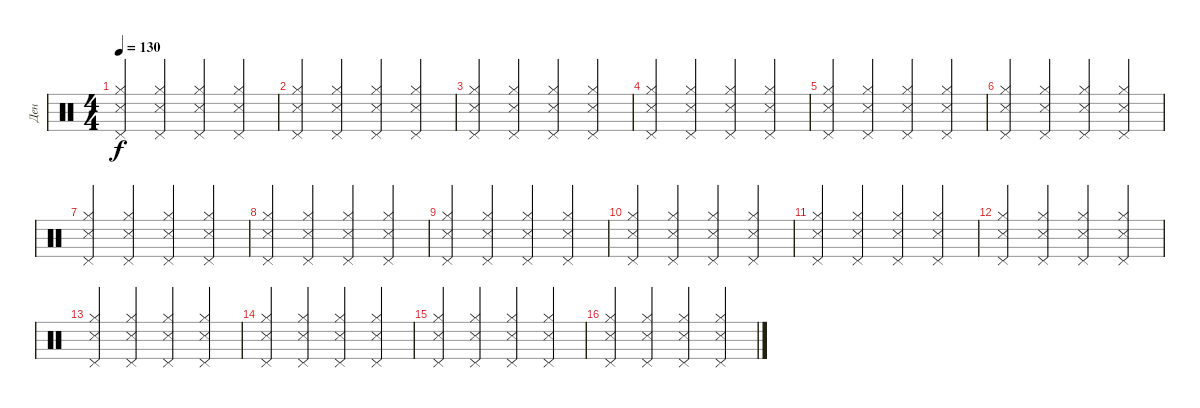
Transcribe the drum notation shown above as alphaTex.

\track ("Ден" "Ден") {instrument percussion}
\staff {score}
\articulation defaults
\ts (4 4)
\tempo 130
\clef neutral
\ks c
("Pedal Hi-Hat (hit)" "Hi-Hat (closed)" "Snare (side stick) 3").4{dy f} ("Pedal Hi-Hat (hit)" "Hi-Hat (closed)" "Snare (side stick) 3").4 ("Pedal Hi-Hat (hit)" "Hi-Hat (closed)" "Snare (side stick) 3").4 ("Pedal Hi-Hat (hit)" "Hi-Hat (closed)" "Snare (side stick) 3").4 |
("Pedal Hi-Hat (hit)" "Hi-Hat (closed)" "Snare (side stick) 3").4 ("Pedal Hi-Hat (hit)" "Hi-Hat (closed)" "Snare (side stick) 3").4 ("Pedal Hi-Hat (hit)" "Hi-Hat (closed)" "Snare (side stick) 3").4 ("Pedal Hi-Hat (hit)" "Hi-Hat (closed)" "Snare (side stick) 3").4 |
("Pedal Hi-Hat (hit)" "Hi-Hat (closed)" "Snare (side stick) 3").4 ("Pedal Hi-Hat (hit)" "Hi-Hat (closed)" "Snare (side stick) 3").4 ("Pedal Hi-Hat (hit)" "Hi-Hat (closed)" "Snare (side stick) 3").4 ("Pedal Hi-Hat (hit)" "Hi-Hat (closed)" "Snare (side stick) 3").4 |
("Pedal Hi-Hat (hit)" "Hi-Hat (closed)" "Snare (side stick) 3").4 ("Pedal Hi-Hat (hit)" "Hi-Hat (closed)" "Snare (side stick) 3").4 ("Pedal Hi-Hat (hit)" "Hi-Hat (closed)" "Snare (side stick) 3").4 ("Pedal Hi-Hat (hit)" "Hi-Hat (closed)" "Snare (side stick) 3").4 |
("Pedal Hi-Hat (hit)" "Hi-Hat (closed)" "Snare (side stick) 3").4 ("Pedal Hi-Hat (hit)" "Hi-Hat (closed)" "Snare (side stick) 3").4 ("Pedal Hi-Hat (hit)" "Hi-Hat (closed)" "Snare (side stick) 3").4 ("Pedal Hi-Hat (hit)" "Hi-Hat (closed)" "Snare (side stick) 3").4 |
("Pedal Hi-Hat (hit)" "Hi-Hat (closed)" "Snare (side stick) 3").4 ("Pedal Hi-Hat (hit)" "Hi-Hat (closed)" "Snare (side stick) 3").4 ("Pedal Hi-Hat (hit)" "Hi-Hat (closed)" "Snare (side stick) 3").4 ("Pedal Hi-Hat (hit)" "Hi-Hat (closed)" "Snare (side stick) 3").4 |
("Pedal Hi-Hat (hit)" "Hi-Hat (closed)" "Snare (side stick) 3").4 ("Pedal Hi-Hat (hit)" "Hi-Hat (closed)" "Snare (side stick) 3").4 ("Pedal Hi-Hat (hit)" "Hi-Hat (closed)" "Snare (side stick) 3").4 ("Pedal Hi-Hat (hit)" "Hi-Hat (closed)" "Snare (side stick) 3").4 |
("Pedal Hi-Hat (hit)" "Hi-Hat (closed)" "Snare (side stick) 3").4 ("Pedal Hi-Hat (hit)" "Hi-Hat (closed)" "Snare (side stick) 3").4 ("Pedal Hi-Hat (hit)" "Hi-Hat (closed)" "Snare (side stick) 3").4 ("Pedal Hi-Hat (hit)" "Hi-Hat (closed)" "Snare (side stick) 3").4 |
("Pedal Hi-Hat (hit)" "Hi-Hat (closed)" "Snare (side stick) 3").4 ("Pedal Hi-Hat (hit)" "Hi-Hat (closed)" "Snare (side stick) 3").4 ("Pedal Hi-Hat (hit)" "Hi-Hat (closed)" "Snare (side stick) 3").4 ("Pedal Hi-Hat (hit)" "Hi-Hat (closed)" "Snare (side stick) 3").4 |
("Pedal Hi-Hat (hit)" "Hi-Hat (closed)" "Snare (side stick) 3").4 ("Pedal Hi-Hat (hit)" "Hi-Hat (closed)" "Snare (side stick) 3").4 ("Pedal Hi-Hat (hit)" "Hi-Hat (closed)" "Snare (side stick) 3").4 ("Pedal Hi-Hat (hit)" "Hi-Hat (closed)" "Snare (side stick) 3").4 |
("Pedal Hi-Hat (hit)" "Hi-Hat (closed)" "Snare (side stick) 3").4 ("Pedal Hi-Hat (hit)" "Hi-Hat (closed)" "Snare (side stick) 3").4 ("Pedal Hi-Hat (hit)" "Hi-Hat (closed)" "Snare (side stick) 3").4 ("Pedal Hi-Hat (hit)" "Hi-Hat (closed)" "Snare (side stick) 3").4 |
("Pedal Hi-Hat (hit)" "Hi-Hat (closed)" "Snare (side stick) 3").4 ("Pedal Hi-Hat (hit)" "Hi-Hat (closed)" "Snare (side stick) 3").4 ("Pedal Hi-Hat (hit)" "Hi-Hat (closed)" "Snare (side stick) 3").4 ("Pedal Hi-Hat (hit)" "Hi-Hat (closed)" "Snare (side stick) 3").4 |
("Pedal Hi-Hat (hit)" "Hi-Hat (closed)" "Snare (side stick) 3").4 ("Pedal Hi-Hat (hit)" "Hi-Hat (closed)" "Snare (side stick) 3").4 ("Pedal Hi-Hat (hit)" "Hi-Hat (closed)" "Snare (side stick) 3").4 ("Pedal Hi-Hat (hit)" "Hi-Hat (closed)" "Snare (side stick) 3").4 |
("Pedal Hi-Hat (hit)" "Hi-Hat (closed)" "Snare (side stick) 3").4 ("Pedal Hi-Hat (hit)" "Hi-Hat (closed)" "Snare (side stick) 3").4 ("Pedal Hi-Hat (hit)" "Hi-Hat (closed)" "Snare (side stick) 3").4 ("Pedal Hi-Hat (hit)" "Hi-Hat (closed)" "Snare (side stick) 3").4 |
("Pedal Hi-Hat (hit)" "Hi-Hat (closed)" "Snare (side stick) 3").4 ("Pedal Hi-Hat (hit)" "Hi-Hat (closed)" "Snare (side stick) 3").4 ("Pedal Hi-Hat (hit)" "Hi-Hat (closed)" "Snare (side stick) 3").4 ("Pedal Hi-Hat (hit)" "Hi-Hat (closed)" "Snare (side stick) 3").4 |
("Pedal Hi-Hat (hit)" "Hi-Hat (closed)" "Snare (side stick) 3").4 ("Pedal Hi-Hat (hit)" "Hi-Hat (closed)" "Snare (side stick) 3").4 ("Pedal Hi-Hat (hit)" "Hi-Hat (closed)" "Snare (side stick) 3").4 ("Pedal Hi-Hat (hit)" "Hi-Hat (closed)" "Snare (side stick) 3").4
